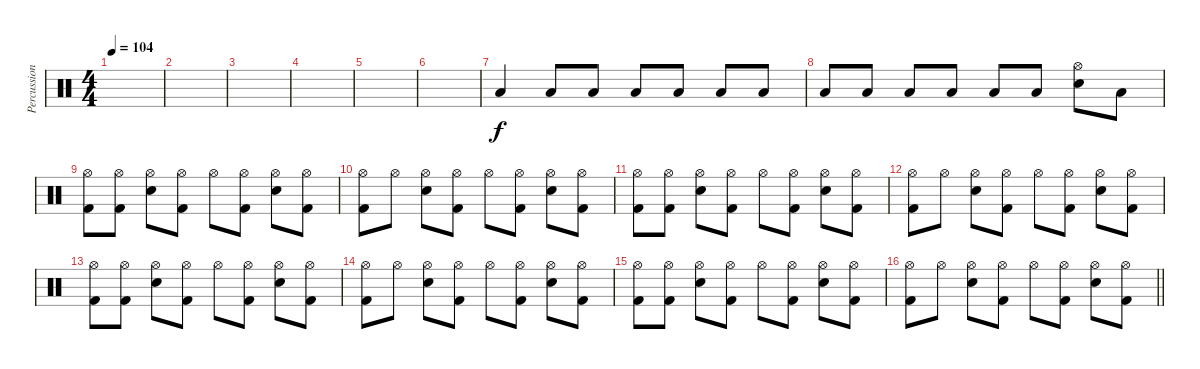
\track ("Percussion" "Percussion") {instrument percussion}
\staff {score}
\articulation defaults
\ts (4 4)
\tempo 104
\clef neutral
\ks c
|
|
|
|
|
|
"Low Floor Tom (hit)".4 "Low Floor Tom (hit)".8{volume 0} "Low Floor Tom (hit)".8 "Low Floor Tom (hit)".8 "Low Floor Tom (hit)".8 "Low Floor Tom (hit)".8 "Low Floor Tom (hit)".8{volume 13} |
"Low Floor Tom (hit)".8 "Low Floor Tom (hit)".8 "Low Floor Tom (hit)".8 "Low Floor Tom (hit)".8 "Low Floor Tom (hit)".8 "Low Floor Tom (hit)".8 ("Hi-Hat (open)" "Snare (hit) 2").8 "Low Floor Tom (hit)".8 |
("Hi-Hat (open)" "Kick (hit) 2").8 ("Hi-Hat (open)" "Kick (hit) 2").8 ("Hi-Hat (open)" "Electric Snare (hit)").8 ("Hi-Hat (open)" "Kick (hit) 2").8 "Hi-Hat (open)".8 ("Hi-Hat (open)" "Kick (hit) 2").8 ("Hi-Hat (open)" "Electric Snare (hit)").8 ("Hi-Hat (open)" "Kick (hit) 2").8 |
("Hi-Hat (open)" "Kick (hit) 2").8 "Hi-Hat (open)".8 ("Hi-Hat (open)" "Electric Snare (hit)").8 ("Hi-Hat (open)" "Kick (hit) 2").8 "Hi-Hat (open)".8 ("Hi-Hat (open)" "Kick (hit) 2").8 ("Hi-Hat (open)" "Electric Snare (hit)").8 ("Hi-Hat (open)" "Kick (hit) 2").8 |
("Hi-Hat (open)" "Kick (hit) 2").8 ("Hi-Hat (open)" "Kick (hit) 2").8 ("Hi-Hat (open)" "Electric Snare (hit)").8 ("Hi-Hat (open)" "Kick (hit) 2").8 "Hi-Hat (open)".8 ("Hi-Hat (open)" "Kick (hit) 2").8 ("Hi-Hat (open)" "Electric Snare (hit)").8 ("Hi-Hat (open)" "Kick (hit) 2").8 |
("Hi-Hat (open)" "Kick (hit) 2").8 "Hi-Hat (open)".8 ("Hi-Hat (open)" "Electric Snare (hit)").8 ("Hi-Hat (open)" "Kick (hit) 2").8 "Hi-Hat (open)".8 ("Hi-Hat (open)" "Kick (hit) 2").8 ("Hi-Hat (open)" "Electric Snare (hit)").8 ("Hi-Hat (open)" "Kick (hit) 2").8 |
("Hi-Hat (open)" "Kick (hit) 2").8 ("Hi-Hat (open)" "Kick (hit) 2").8 ("Hi-Hat (open)" "Electric Snare (hit)").8 ("Hi-Hat (open)" "Kick (hit) 2").8 "Hi-Hat (open)".8 ("Hi-Hat (open)" "Kick (hit) 2").8 ("Hi-Hat (open)" "Electric Snare (hit)").8 ("Hi-Hat (open)" "Kick (hit) 2").8 |
("Hi-Hat (open)" "Kick (hit) 2").8 "Hi-Hat (open)".8 ("Hi-Hat (open)" "Electric Snare (hit)").8 ("Hi-Hat (open)" "Kick (hit) 2").8 "Hi-Hat (open)".8 ("Hi-Hat (open)" "Kick (hit) 2").8 ("Hi-Hat (open)" "Electric Snare (hit)").8 ("Hi-Hat (open)" "Kick (hit) 2").8 |
("Hi-Hat (open)" "Kick (hit) 2").8 ("Hi-Hat (open)" "Kick (hit) 2").8 ("Hi-Hat (open)" "Electric Snare (hit)").8 ("Hi-Hat (open)" "Kick (hit) 2").8 "Hi-Hat (open)".8 ("Hi-Hat (open)" "Kick (hit) 2").8 ("Hi-Hat (open)" "Electric Snare (hit)").8 ("Hi-Hat (open)" "Kick (hit) 2").8 |
\barLineRight lightlight
("Hi-Hat (open)" "Kick (hit) 2").8 "Hi-Hat (open)".8 ("Hi-Hat (open)" "Electric Snare (hit)").8 ("Hi-Hat (open)" "Kick (hit) 2").8 "Hi-Hat (open)".8 ("Hi-Hat (open)" "Kick (hit) 2").8 ("Hi-Hat (open)" "Electric Snare (hit)").8 ("Hi-Hat (open)" "Kick (hit) 2").8
